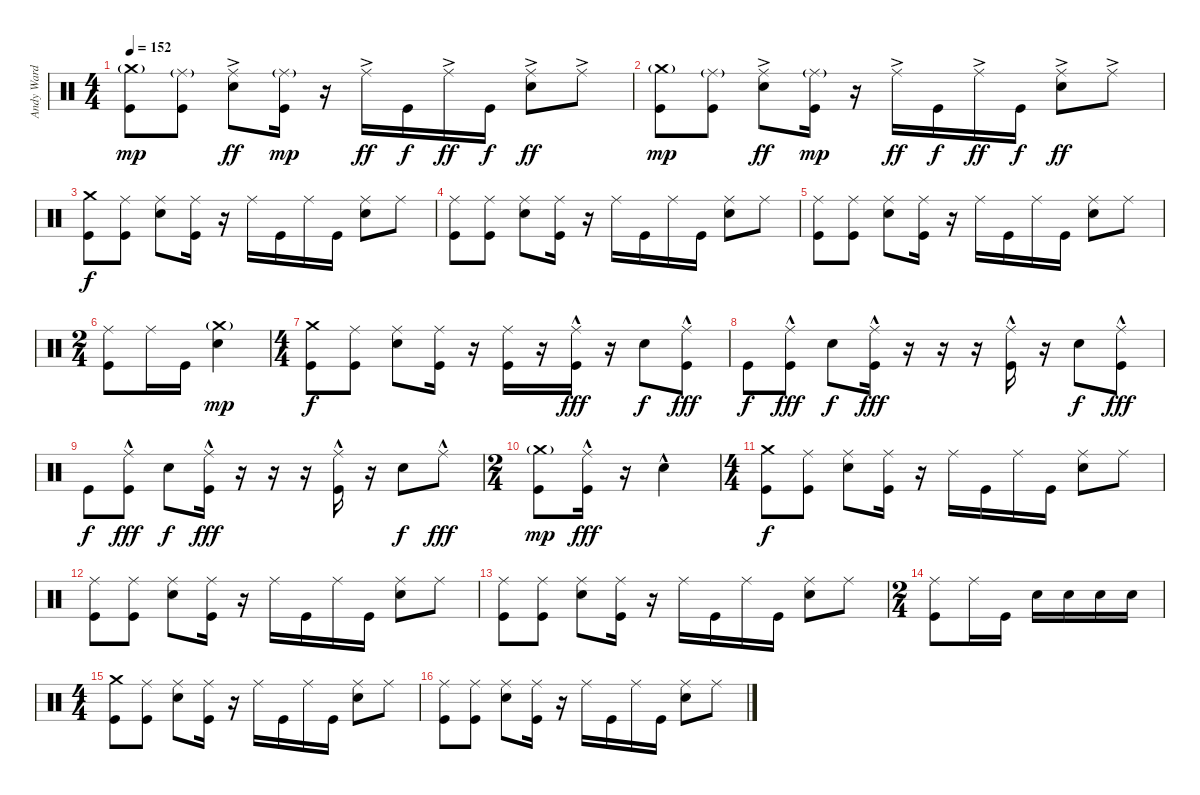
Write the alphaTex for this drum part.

\track ("Andy Ward (Drums)" "Andy Ward ") {instrument percussion}
\staff {score}
\articulation defaults
\ts (4 4)
\tempo 152
\clef neutral
\ks c
("Crash medium (hit)"{g} "Kick (hit)").8{dy mp} ("Ride (middle)"{g} "Kick (hit)").8 ("Ride (middle)"{ac} "Electric Snare (hit)").8{dy ff} ("Ride (middle)"{g} "Kick (hit)").16{dy mp} r.16 "Ride (middle)"{ac}.16{dy ff} "Kick (hit)".16{dy f} "Ride (middle)"{ac}.16{dy ff} "Kick (hit)".16{dy f} ("Ride (middle)"{ac} "Electric Snare (hit)").8{dy ff} "Ride (middle)"{ac}.8 |
("Crash medium (hit)"{g} "Kick (hit)").8{dy mp} ("Ride (middle)"{g} "Kick (hit)").8 ("Ride (middle)"{ac} "Electric Snare (hit)").8{dy ff} ("Ride (middle)"{g} "Kick (hit)").16{dy mp} r.16 "Ride (middle)"{ac}.16{dy ff} "Kick (hit)".16{dy f} "Ride (middle)"{ac}.16{dy ff} "Kick (hit)".16{dy f} ("Ride (middle)"{ac} "Electric Snare (hit)").8{dy ff} "Ride (middle)"{ac}.8 |
("Crash medium (hit)" "Kick (hit)").8{dy f} ("Ride (middle)" "Kick (hit)").8 ("Ride (middle)" "Electric Snare (hit)").8 ("Ride (middle)" "Kick (hit)").16 r.16 "Ride (middle)".16 "Kick (hit)".16 "Ride (middle)".16 "Kick (hit)".16 ("Ride (middle)" "Electric Snare (hit)").8 "Ride (middle)".8 |
("Ride (middle)" "Kick (hit)").8 ("Ride (middle)" "Kick (hit)").8 ("Ride (middle)" "Electric Snare (hit)").8 ("Ride (middle)" "Kick (hit)").16 r.16 "Ride (middle)".16 "Kick (hit)".16 "Ride (middle)".16 "Kick (hit)".16 ("Ride (middle)" "Electric Snare (hit)").8 "Ride (middle)".8 |
("Ride (middle)" "Kick (hit)").8 ("Ride (middle)" "Kick (hit)").8 ("Ride (middle)" "Electric Snare (hit)").8 ("Ride (middle)" "Kick (hit)").16 r.16 "Ride (middle)".16 "Kick (hit)".16 "Ride (middle)".16 "Kick (hit)".16 ("Ride (middle)" "Electric Snare (hit)").8 "Ride (middle)".8 |
\ts (2 4)
("Ride (middle)" "Kick (hit)").8 "Ride (middle)".16 "Kick (hit)".16 ("Crash medium (hit)"{g} "Electric Snare (hit)").4{dy mp} |
\ts (4 4)
("Crash medium (hit)" "Kick (hit)").8{dy f} ("Ride (middle)" "Kick (hit)").8 ("Ride (middle)" "Electric Snare (hit)").8 ("Ride (middle)" "Kick (hit)").16 r.16 ("Ride (middle)" "Kick (hit)").16 r.16 ("Ride (middle)"{hac} "Kick (hit)").16{dy fff} r.16 "Electric Snare (hit)".8{dy f} ("Ride (middle)"{hac} "Kick (hit)").8{dy fff} |
"Kick (hit)".8{dy f} ("Ride (middle)"{hac} "Kick (hit)").8{dy fff} "Electric Snare (hit)".8{dy f} ("Ride (middle)"{hac} "Kick (hit)").16{dy fff} r.16 r.16 r.16 ("Ride (middle)"{hac} "Kick (hit)").16 r.16 "Electric Snare (hit)".8{dy f} ("Ride (middle)"{hac} "Kick (hit)").8{dy fff} |
"Kick (hit)".8{dy f} ("Ride (middle)"{hac} "Kick (hit)").8{dy fff} "Electric Snare (hit)".8{dy f} ("Ride (middle)"{hac} "Kick (hit)").16{dy fff} r.16 r.16 r.16 ("Ride (middle)"{hac} "Kick (hit)").16 r.16 "Electric Snare (hit)".8{dy f} "Ride (middle)"{hac}.8{dy fff} |
\ts (2 4)
("Crash medium (hit)"{g} "Kick (hit)").8{dy mp} ("Ride (middle)"{hac} "Kick (hit)").16{dy fff} r.16 "Electric Snare (hit)"{hac}.4 |
\ts (4 4)
("Crash medium (hit)" "Kick (hit)").8{dy f} ("Ride (middle)" "Kick (hit)").8 ("Ride (middle)" "Electric Snare (hit)").8 ("Ride (middle)" "Kick (hit)").16 r.16 "Ride (middle)".16 "Kick (hit)".16 "Ride (middle)".16 "Kick (hit)".16 ("Ride (middle)" "Electric Snare (hit)").8 "Ride (middle)".8 |
("Ride (middle)" "Kick (hit)").8 ("Ride (middle)" "Kick (hit)").8 ("Ride (middle)" "Electric Snare (hit)").8 ("Ride (middle)" "Kick (hit)").16 r.16 "Ride (middle)".16 "Kick (hit)".16 "Ride (middle)".16 "Kick (hit)".16 ("Ride (middle)" "Electric Snare (hit)").8 "Ride (middle)".8 |
("Ride (middle)" "Kick (hit)").8 ("Ride (middle)" "Kick (hit)").8 ("Ride (middle)" "Electric Snare (hit)").8 ("Ride (middle)" "Kick (hit)").16 r.16 "Ride (middle)".16 "Kick (hit)".16 "Ride (middle)".16 "Kick (hit)".16 ("Ride (middle)" "Electric Snare (hit)").8 "Ride (middle)".8 |
\ts (2 4)
("Ride (middle)" "Kick (hit)").8 "Ride (middle)".16 "Kick (hit)".16 "Electric Snare (hit)".16 "Electric Snare (hit)".16 "Electric Snare (hit)".16 "Electric Snare (hit)".16 |
\ts (4 4)
("Crash medium (hit)" "Kick (hit)").8 ("Ride (middle)" "Kick (hit)").8 ("Ride (middle)" "Electric Snare (hit)").8 ("Ride (middle)" "Kick (hit)").16 r.16 "Ride (middle)".16 "Kick (hit)".16 "Ride (middle)".16 "Kick (hit)".16 ("Ride (middle)" "Electric Snare (hit)").8 "Ride (middle)".8 |
("Ride (middle)" "Kick (hit)").8 ("Ride (middle)" "Kick (hit)").8 ("Ride (middle)" "Electric Snare (hit)").8 ("Ride (middle)" "Kick (hit)").16 r.16 "Ride (middle)".16 "Kick (hit)".16 "Ride (middle)".16 "Kick (hit)".16 ("Ride (middle)" "Electric Snare (hit)").8 "Ride (middle)".8
